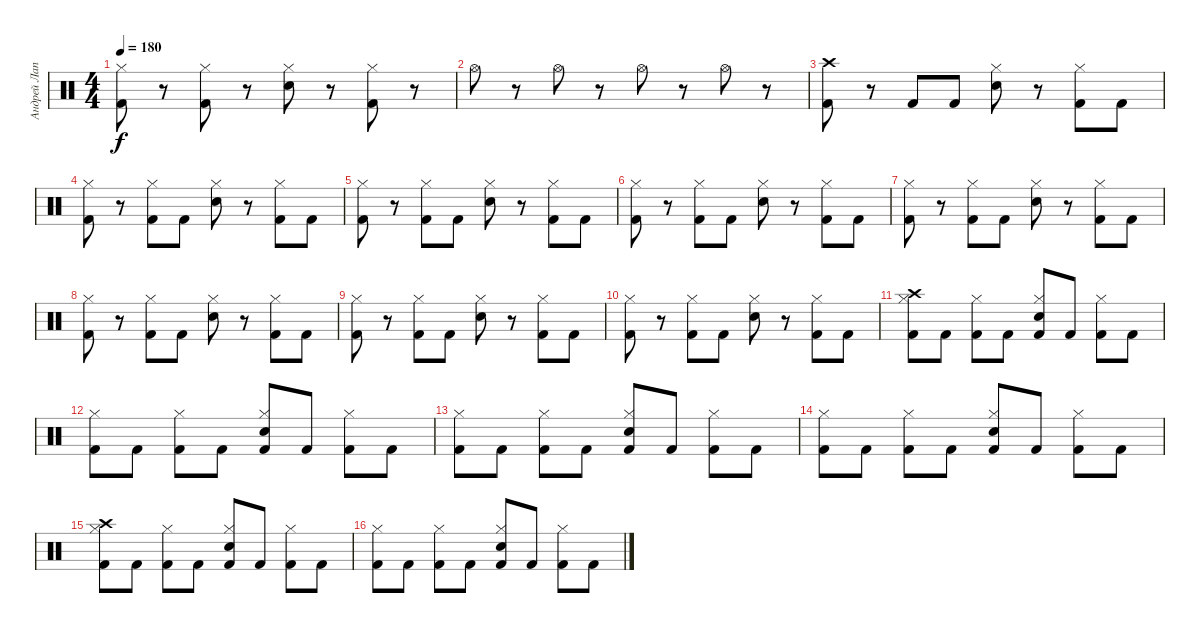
\track ("Андрей Лаптев" "Андрей Лап") {instrument percussion}
\staff {score}
\articulation defaults
\ts (4 4)
\tempo 180
\clef neutral
\ks c
("Kick (hit) 2" "Hi-Hat (closed)").8{dy f} r.8 ("Kick (hit) 2" "Hi-Hat (closed)").8 r.8 ("Snare (hit) 2" "Hi-Hat (closed)").8 r.8 ("Kick (hit) 2" "Hi-Hat (closed)").8 r.8 |
"Hi-Hat (open)".8 r.8 "Hi-Hat (open)".8 r.8 "Hi-Hat (open)".8 r.8 "Hi-Hat (open)".8 r.8 |
("Kick (hit) 2" "Crash high (hit)").8 r.8 "Kick (hit) 2".8 "Kick (hit) 2".8 ("Snare (hit) 2" "Hi-Hat (closed)").8 r.8 ("Kick (hit) 2" "Hi-Hat (closed)").8 "Kick (hit) 2".8 |
("Kick (hit) 2" "Hi-Hat (closed)").8 r.8 ("Kick (hit) 2" "Hi-Hat (closed)").8 "Kick (hit) 2".8 ("Snare (hit) 2" "Hi-Hat (closed)").8 r.8 ("Kick (hit) 2" "Hi-Hat (closed)").8 "Kick (hit) 2".8 |
("Kick (hit) 2" "Hi-Hat (closed)").8 r.8 ("Kick (hit) 2" "Hi-Hat (closed)").8 "Kick (hit) 2".8 ("Snare (hit) 2" "Hi-Hat (closed)").8 r.8 ("Kick (hit) 2" "Hi-Hat (closed)").8 "Kick (hit) 2".8 |
("Kick (hit) 2" "Hi-Hat (closed)").8 r.8 ("Kick (hit) 2" "Hi-Hat (closed)").8 "Kick (hit) 2".8 ("Snare (hit) 2" "Hi-Hat (closed)").8 r.8 ("Kick (hit) 2" "Hi-Hat (closed)").8 "Kick (hit) 2".8 |
("Kick (hit) 2" "Hi-Hat (closed)").8 r.8 ("Kick (hit) 2" "Hi-Hat (closed)").8 "Kick (hit) 2".8 ("Snare (hit) 2" "Hi-Hat (closed)").8 r.8 ("Kick (hit) 2" "Hi-Hat (closed)").8 "Kick (hit) 2".8 |
("Kick (hit) 2" "Hi-Hat (closed)").8 r.8 ("Kick (hit) 2" "Hi-Hat (closed)").8 "Kick (hit) 2".8 ("Snare (hit) 2" "Hi-Hat (closed)").8 r.8 ("Kick (hit) 2" "Hi-Hat (closed)").8 "Kick (hit) 2".8 |
("Kick (hit) 2" "Hi-Hat (closed)").8 r.8 ("Kick (hit) 2" "Hi-Hat (closed)").8 "Kick (hit) 2".8 ("Snare (hit) 2" "Hi-Hat (closed)").8 r.8 ("Kick (hit) 2" "Hi-Hat (closed)").8 "Kick (hit) 2".8 |
("Kick (hit) 2" "Hi-Hat (closed)").8 r.8 ("Kick (hit) 2" "Hi-Hat (closed)").8 "Kick (hit) 2".8 ("Snare (hit) 2" "Hi-Hat (closed)").8 r.8 ("Kick (hit) 2" "Hi-Hat (closed)").8 "Kick (hit) 2".8 |
("Kick (hit) 2" "Hi-Hat (closed)" "Crash high (hit)").8 "Kick (hit) 2".8 ("Kick (hit) 2" "Hi-Hat (closed)").8 "Kick (hit) 2".8 ("Snare (hit) 2" "Kick (hit) 2" "Hi-Hat (closed)").8 "Kick (hit) 2".8 ("Kick (hit) 2" "Hi-Hat (closed)").8 "Kick (hit) 2".8 |
("Kick (hit) 2" "Hi-Hat (closed)").8 "Kick (hit) 2".8 ("Kick (hit) 2" "Hi-Hat (closed)").8 "Kick (hit) 2".8 ("Snare (hit) 2" "Kick (hit) 2" "Hi-Hat (closed)").8 "Kick (hit) 2".8 ("Kick (hit) 2" "Hi-Hat (closed)").8 "Kick (hit) 2".8 |
("Kick (hit) 2" "Hi-Hat (closed)").8 "Kick (hit) 2".8 ("Kick (hit) 2" "Hi-Hat (closed)").8 "Kick (hit) 2".8 ("Snare (hit) 2" "Kick (hit) 2" "Hi-Hat (closed)").8 "Kick (hit) 2".8 ("Kick (hit) 2" "Hi-Hat (closed)").8 "Kick (hit) 2".8 |
("Kick (hit) 2" "Hi-Hat (closed)").8 "Kick (hit) 2".8 ("Kick (hit) 2" "Hi-Hat (closed)").8 "Kick (hit) 2".8 ("Snare (hit) 2" "Kick (hit) 2" "Hi-Hat (closed)").8 "Kick (hit) 2".8 ("Kick (hit) 2" "Hi-Hat (closed)").8 "Kick (hit) 2".8 |
("Kick (hit) 2" "Hi-Hat (closed)" "Crash high (hit)").8 "Kick (hit) 2".8 ("Kick (hit) 2" "Hi-Hat (closed)").8 "Kick (hit) 2".8 ("Snare (hit) 2" "Kick (hit) 2" "Hi-Hat (closed)").8 "Kick (hit) 2".8 ("Kick (hit) 2" "Hi-Hat (closed)").8 "Kick (hit) 2".8 |
("Kick (hit) 2" "Hi-Hat (closed)").8 "Kick (hit) 2".8 ("Kick (hit) 2" "Hi-Hat (closed)").8 "Kick (hit) 2".8 ("Snare (hit) 2" "Kick (hit) 2" "Hi-Hat (closed)").8 "Kick (hit) 2".8 ("Kick (hit) 2" "Hi-Hat (closed)").8 "Kick (hit) 2".8
